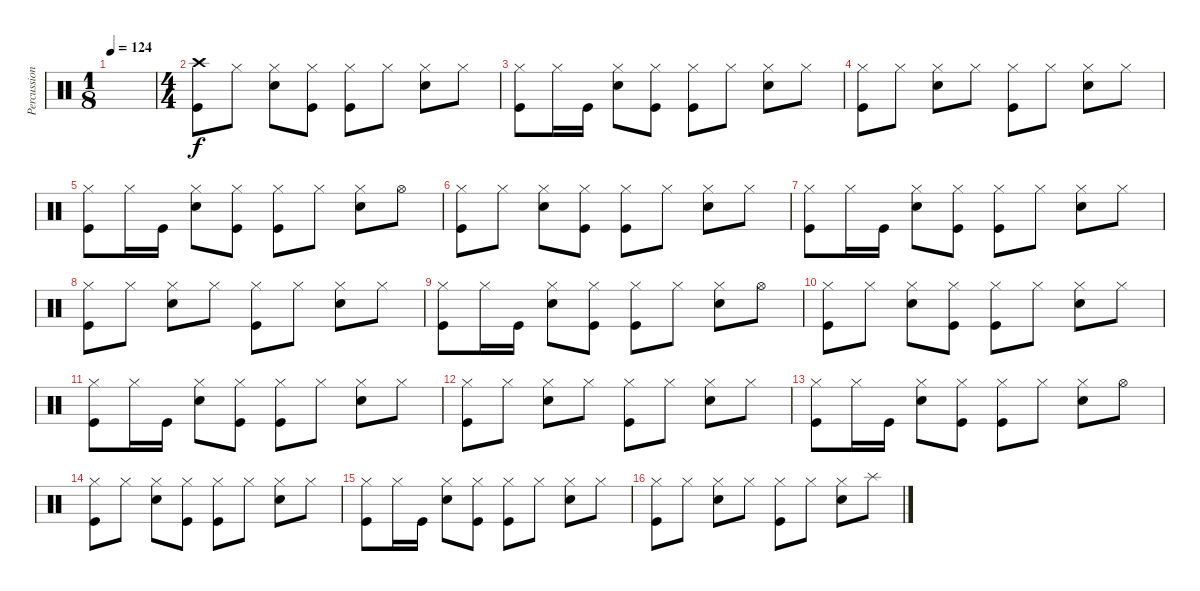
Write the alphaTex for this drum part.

\track ("Percussion" "Percussion") {instrument percussion}
\staff {score}
\articulation defaults
\ts (1 8)
\tempo 124
\clef neutral
\ks c
|
\ts (4 4)
("Crash high (hit)" "Kick (hit)").8 "Hi-Hat (closed)".8 ("Hi-Hat (closed)" "Snare (hit) 2").8 ("Hi-Hat (closed)" "Kick (hit)").8 ("Hi-Hat (closed)" "Kick (hit)").8 "Hi-Hat (closed)".8 ("Hi-Hat (closed)" "Snare (hit) 2").8 "Hi-Hat (closed)".8 |
("Hi-Hat (closed)" "Kick (hit)").8 "Hi-Hat (closed)".16 "Kick (hit)".16 ("Hi-Hat (closed)" "Snare (hit) 2").8 ("Hi-Hat (closed)" "Kick (hit)").8 ("Hi-Hat (closed)" "Kick (hit)").8 "Hi-Hat (closed)".8 ("Hi-Hat (closed)" "Snare (hit) 2").8 "Hi-Hat (closed)".8 |
("Hi-Hat (closed)" "Kick (hit)").8 "Hi-Hat (closed)".8 ("Hi-Hat (closed)" "Snare (hit) 2").8 "Hi-Hat (closed)".8 ("Hi-Hat (closed)" "Kick (hit)").8 "Hi-Hat (closed)".8 ("Hi-Hat (closed)" "Snare (hit) 2").8 "Hi-Hat (closed)".8 |
("Hi-Hat (closed)" "Kick (hit)").8 "Hi-Hat (closed)".16 "Kick (hit)".16 ("Hi-Hat (closed)" "Snare (hit) 2").8 ("Hi-Hat (closed)" "Kick (hit)").8 ("Hi-Hat (closed)" "Kick (hit)").8 "Hi-Hat (closed)".8 ("Hi-Hat (closed)" "Snare (hit) 2").8 "Hi-Hat (open)".8 |
("Hi-Hat (closed)" "Kick (hit)").8 "Hi-Hat (closed)".8 ("Hi-Hat (closed)" "Snare (hit) 2").8 ("Hi-Hat (closed)" "Kick (hit)").8 ("Hi-Hat (closed)" "Kick (hit)").8 "Hi-Hat (closed)".8 ("Hi-Hat (closed)" "Snare (hit) 2").8 "Hi-Hat (closed)".8 |
("Hi-Hat (closed)" "Kick (hit)").8 "Hi-Hat (closed)".16 "Kick (hit)".16 ("Hi-Hat (closed)" "Snare (hit) 2").8 ("Hi-Hat (closed)" "Kick (hit)").8 ("Hi-Hat (closed)" "Kick (hit)").8 "Hi-Hat (closed)".8 ("Hi-Hat (closed)" "Snare (hit) 2").8 "Hi-Hat (closed)".8 |
("Hi-Hat (closed)" "Kick (hit)").8 "Hi-Hat (closed)".8 ("Hi-Hat (closed)" "Snare (hit) 2").8 "Hi-Hat (closed)".8 ("Hi-Hat (closed)" "Kick (hit)").8 "Hi-Hat (closed)".8 ("Hi-Hat (closed)" "Snare (hit) 2").8 "Hi-Hat (closed)".8 |
("Hi-Hat (closed)" "Kick (hit)").8 "Hi-Hat (closed)".16 "Kick (hit)".16 ("Hi-Hat (closed)" "Snare (hit) 2").8 ("Hi-Hat (closed)" "Kick (hit)").8 ("Hi-Hat (closed)" "Kick (hit)").8 "Hi-Hat (closed)".8 ("Hi-Hat (closed)" "Snare (hit) 2").8 "Hi-Hat (open)".8 |
("Hi-Hat (closed)" "Kick (hit)").8 "Hi-Hat (closed)".8 ("Hi-Hat (closed)" "Snare (hit) 2").8 ("Hi-Hat (closed)" "Kick (hit)").8 ("Hi-Hat (closed)" "Kick (hit)").8 "Hi-Hat (closed)".8 ("Hi-Hat (closed)" "Snare (hit) 2").8 "Hi-Hat (closed)".8 |
("Hi-Hat (closed)" "Kick (hit)").8 "Hi-Hat (closed)".16 "Kick (hit)".16 ("Hi-Hat (closed)" "Snare (hit) 2").8 ("Hi-Hat (closed)" "Kick (hit)").8 ("Hi-Hat (closed)" "Kick (hit)").8 "Hi-Hat (closed)".8 ("Hi-Hat (closed)" "Snare (hit) 2").8 "Hi-Hat (closed)".8 |
("Hi-Hat (closed)" "Kick (hit)").8 "Hi-Hat (closed)".8 ("Hi-Hat (closed)" "Snare (hit) 2").8 "Hi-Hat (closed)".8 ("Hi-Hat (closed)" "Kick (hit)").8 "Hi-Hat (closed)".8 ("Hi-Hat (closed)" "Snare (hit) 2").8 "Hi-Hat (closed)".8 |
("Hi-Hat (closed)" "Kick (hit)").8 "Hi-Hat (closed)".16 "Kick (hit)".16 ("Hi-Hat (closed)" "Snare (hit) 2").8 ("Hi-Hat (closed)" "Kick (hit)").8 ("Hi-Hat (closed)" "Kick (hit)").8 "Hi-Hat (closed)".8 ("Hi-Hat (closed)" "Snare (hit) 2").8 "Hi-Hat (open)".8 |
("Hi-Hat (closed)" "Kick (hit)").8 "Hi-Hat (closed)".8 ("Hi-Hat (closed)" "Snare (hit) 2").8 ("Hi-Hat (closed)" "Kick (hit)").8 ("Hi-Hat (closed)" "Kick (hit)").8 "Hi-Hat (closed)".8 ("Hi-Hat (closed)" "Snare (hit) 2").8 "Hi-Hat (closed)".8 |
("Hi-Hat (closed)" "Kick (hit)").8 "Hi-Hat (closed)".16 "Kick (hit)".16 ("Hi-Hat (closed)" "Snare (hit) 2").8 ("Hi-Hat (closed)" "Kick (hit)").8 ("Hi-Hat (closed)" "Kick (hit)").8 "Hi-Hat (closed)".8 ("Hi-Hat (closed)" "Snare (hit) 2").8 "Hi-Hat (closed)".8 |
("Hi-Hat (closed)" "Kick (hit)").8 "Hi-Hat (closed)".8 ("Hi-Hat (closed)" "Snare (hit) 2").8 "Hi-Hat (closed)".8 ("Hi-Hat (closed)" "Kick (hit)").8 "Hi-Hat (closed)".8 ("Hi-Hat (closed)" "Snare (hit) 2").8 "Splash (hit)".8
